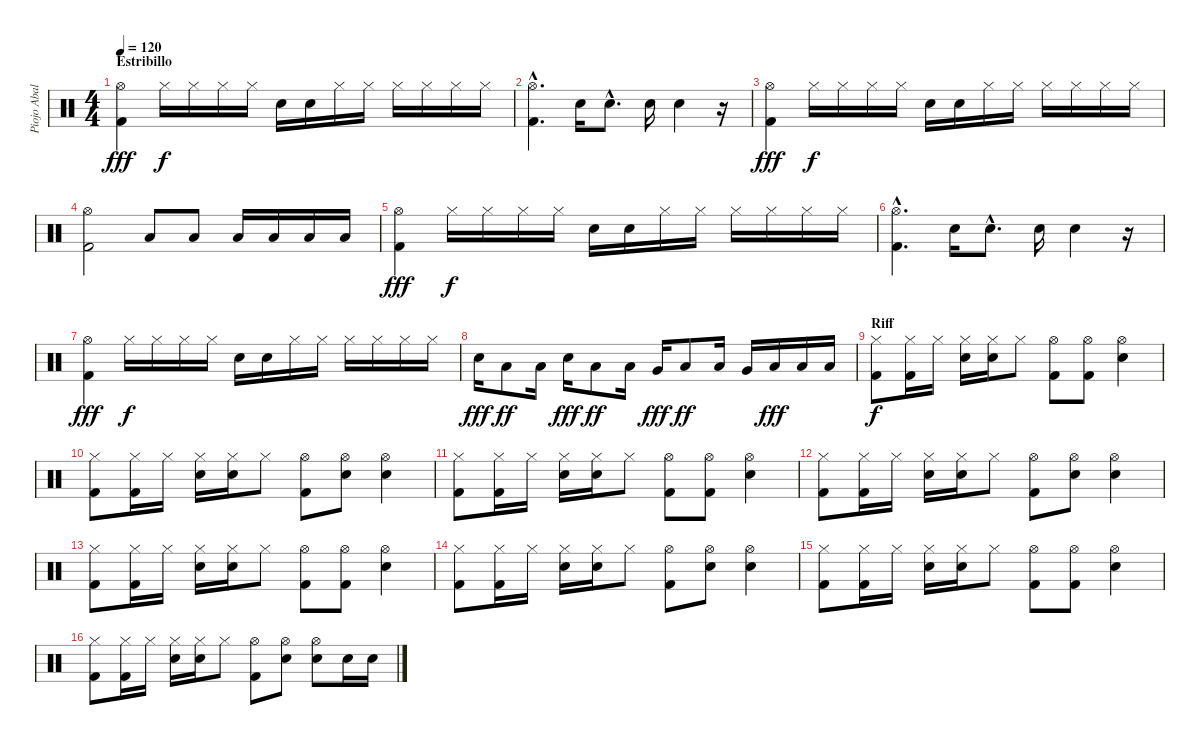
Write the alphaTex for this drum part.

\track ("Piojo Abalos" "Piojo Abal") {instrument percussion}
\staff {score}
\articulation defaults
\ts (4 4)
\section ("" "Estribillo")
\tempo 120
\clef neutral
\ks c
("Hi-Hat (open)" "Kick (hit) 2").4{dy fff} "Hi-Hat (closed)".16{dy f} "Hi-Hat (closed)".16 "Hi-Hat (closed)".16 "Hi-Hat (closed)".16 "Electric Snare (hit)".16 "Electric Snare (hit)".16 "Hi-Hat (closed)".16 "Hi-Hat (closed)".16 "Hi-Hat (closed)".16 "Hi-Hat (closed)".16 "Hi-Hat (closed)".16 "Hi-Hat (closed)".16 |
("Hi-Hat (open)"{hac} "Kick (hit) 2"{hac}).4{d} "Electric Snare (hit)".16 "Electric Snare (hit)"{hac}.8{d} "Electric Snare (hit)".16 "Electric Snare (hit)".4 r.16 |
("Hi-Hat (open)" "Kick (hit) 2").4{dy fff} "Hi-Hat (closed)".16{dy f} "Hi-Hat (closed)".16 "Hi-Hat (closed)".16 "Hi-Hat (closed)".16 "Electric Snare (hit)".16 "Electric Snare (hit)".16 "Hi-Hat (closed)".16 "Hi-Hat (closed)".16 "Hi-Hat (closed)".16 "Hi-Hat (closed)".16 "Hi-Hat (closed)".16 "Hi-Hat (closed)".16 |
("Hi-Hat (open)" "Kick (hit) 2").2 "Low Tom (hit)".8 "Low Tom (hit)".8 "Low Tom (hit)".16 "Low Tom (hit)".16 "Low Tom (hit)".16 "Low Tom (hit)".16 |
("Hi-Hat (open)" "Kick (hit) 2").4{dy fff} "Hi-Hat (closed)".16{dy f} "Hi-Hat (closed)".16 "Hi-Hat (closed)".16 "Hi-Hat (closed)".16 "Electric Snare (hit)".16 "Electric Snare (hit)".16 "Hi-Hat (closed)".16 "Hi-Hat (closed)".16 "Hi-Hat (closed)".16 "Hi-Hat (closed)".16 "Hi-Hat (closed)".16 "Hi-Hat (closed)".16 |
("Hi-Hat (open)"{hac} "Kick (hit) 2"{hac}).4{d} "Electric Snare (hit)".16 "Electric Snare (hit)"{hac}.8{d} "Electric Snare (hit)".16 "Electric Snare (hit)".4 r.16 |
("Hi-Hat (open)" "Kick (hit) 2").4{dy fff} "Hi-Hat (closed)".16{dy f} "Hi-Hat (closed)".16 "Hi-Hat (closed)".16 "Hi-Hat (closed)".16 "Electric Snare (hit)".16 "Electric Snare (hit)".16 "Hi-Hat (closed)".16 "Hi-Hat (closed)".16 "Hi-Hat (closed)".16 "Hi-Hat (closed)".16 "Hi-Hat (closed)".16 "Hi-Hat (closed)".16 |
"Electric Snare (hit)".16{dy fff volume 13 balance 0} "Low Tom (hit)".8{dy ff} "Low Tom (hit)".16 "Electric Snare (hit)".16{dy fff balance 16} "Low Tom (hit)".8{dy ff} "Low Tom (hit)".16{balance 0} "Very Low Tom (hit)".16{dy fff} "Low Tom (hit)".8{dy ff} "Low Tom (hit)".16{balance 16} "Very Low Tom (hit)".16 "Low Tom (hit)".16{dy fff} "Low Tom (hit)".16 "Low Tom (hit)".16 |
\section ("" "Riff")
("Hi-Hat (closed)" "Kick (hit) 2").8{dy f volume 11 balance 10} ("Hi-Hat (closed)" "Kick (hit) 2").16 "Hi-Hat (closed)".16 ("Hi-Hat (closed)" "Electric Snare (hit)").16 ("Hi-Hat (closed)" "Electric Snare (hit)").16 "Hi-Hat (closed)".8 ("Hi-Hat (open)" "Kick (hit) 2").8 ("Hi-Hat (open)" "Kick (hit) 2").8 ("Hi-Hat (open)" "Electric Snare (hit)").4 |
("Hi-Hat (closed)" "Kick (hit) 2").8 ("Hi-Hat (closed)" "Kick (hit) 2").16 "Hi-Hat (closed)".16 ("Hi-Hat (closed)" "Electric Snare (hit)").16 ("Hi-Hat (closed)" "Electric Snare (hit)").16 "Hi-Hat (closed)".8 ("Hi-Hat (open)" "Kick (hit) 2").8 ("Hi-Hat (open)" "Electric Snare (hit)").8 ("Hi-Hat (open)" "Electric Snare (hit)").4 |
("Hi-Hat (closed)" "Kick (hit) 2").8 ("Hi-Hat (closed)" "Kick (hit) 2").16 "Hi-Hat (closed)".16 ("Hi-Hat (closed)" "Electric Snare (hit)").16 ("Hi-Hat (closed)" "Electric Snare (hit)").16 "Hi-Hat (closed)".8 ("Hi-Hat (open)" "Kick (hit) 2").8 ("Hi-Hat (open)" "Kick (hit) 2").8 ("Hi-Hat (open)" "Electric Snare (hit)").4 |
("Hi-Hat (closed)" "Kick (hit) 2").8 ("Hi-Hat (closed)" "Kick (hit) 2").16 "Hi-Hat (closed)".16 ("Hi-Hat (closed)" "Electric Snare (hit)").16 ("Hi-Hat (closed)" "Electric Snare (hit)").16 "Hi-Hat (closed)".8 ("Hi-Hat (open)" "Kick (hit) 2").8 ("Hi-Hat (open)" "Electric Snare (hit)").8 ("Hi-Hat (open)" "Electric Snare (hit)").4 |
("Hi-Hat (closed)" "Kick (hit) 2").8 ("Hi-Hat (closed)" "Kick (hit) 2").16 "Hi-Hat (closed)".16 ("Hi-Hat (closed)" "Electric Snare (hit)").16 ("Hi-Hat (closed)" "Electric Snare (hit)").16 "Hi-Hat (closed)".8 ("Hi-Hat (open)" "Kick (hit) 2").8 ("Hi-Hat (open)" "Kick (hit) 2").8 ("Hi-Hat (open)" "Electric Snare (hit)").4 |
("Hi-Hat (closed)" "Kick (hit) 2").8 ("Hi-Hat (closed)" "Kick (hit) 2").16 "Hi-Hat (closed)".16 ("Hi-Hat (closed)" "Electric Snare (hit)").16 ("Hi-Hat (closed)" "Electric Snare (hit)").16 "Hi-Hat (closed)".8 ("Hi-Hat (open)" "Kick (hit) 2").8 ("Hi-Hat (open)" "Electric Snare (hit)").8 ("Hi-Hat (open)" "Electric Snare (hit)").4 |
("Hi-Hat (closed)" "Kick (hit) 2").8 ("Hi-Hat (closed)" "Kick (hit) 2").16 "Hi-Hat (closed)".16 ("Hi-Hat (closed)" "Electric Snare (hit)").16 ("Hi-Hat (closed)" "Electric Snare (hit)").16 "Hi-Hat (closed)".8 ("Hi-Hat (open)" "Kick (hit) 2").8 ("Hi-Hat (open)" "Kick (hit) 2").8 ("Hi-Hat (open)" "Electric Snare (hit)").4 |
("Hi-Hat (closed)" "Kick (hit) 2").8 ("Hi-Hat (closed)" "Kick (hit) 2").16 "Hi-Hat (closed)".16 ("Hi-Hat (closed)" "Electric Snare (hit)").16 ("Hi-Hat (closed)" "Electric Snare (hit)").16 "Hi-Hat (closed)".8 ("Hi-Hat (open)" "Kick (hit) 2").8 ("Hi-Hat (open)" "Electric Snare (hit)").8 ("Hi-Hat (open)" "Electric Snare (hit)").8 "Electric Snare (hit)".16 "Electric Snare (hit)".16
